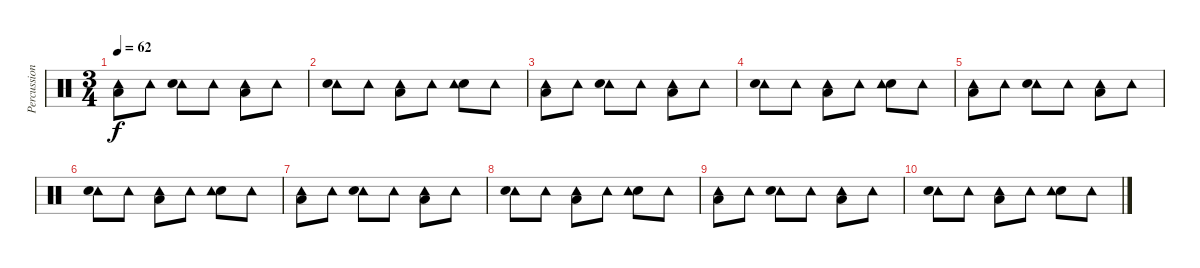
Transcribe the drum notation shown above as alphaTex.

\track ("Percussions" "Percussion") {instrument percussion}
\staff {score}
\articulation defaults
\ts (3 4)
\tempo 62
\clef neutral
\ks c
("Tambourine (hit)" "Low Tom (hit)").8{dy f} "Tambourine (hit)".8 ("Tambourine (hit)" "Snare (hit) 2").8 "Tambourine (hit)".8 ("Tambourine (hit)" "Low Tom (hit)").8 "Tambourine (hit)".8 |
("Tambourine (hit)" "Snare (hit) 2").8 "Tambourine (hit)".8 ("Tambourine (hit)" "Low Tom (hit)").8 "Tambourine (hit)".8 ("Snare (hit) 2" "Tambourine (hit)").8 "Tambourine (hit)".8 |
("Tambourine (hit)" "Low Tom (hit)").8 "Tambourine (hit)".8 ("Tambourine (hit)" "Snare (hit) 2").8 "Tambourine (hit)".8 ("Tambourine (hit)" "Low Tom (hit)").8 "Tambourine (hit)".8 |
("Tambourine (hit)" "Snare (hit) 2").8 "Tambourine (hit)".8 ("Tambourine (hit)" "Low Tom (hit)").8 "Tambourine (hit)".8 ("Snare (hit) 2" "Tambourine (hit)").8 "Tambourine (hit)".8 |
("Tambourine (hit)" "Low Tom (hit)").8 "Tambourine (hit)".8 ("Tambourine (hit)" "Snare (hit) 2").8 "Tambourine (hit)".8 ("Tambourine (hit)" "Low Tom (hit)").8 "Tambourine (hit)".8 |
("Tambourine (hit)" "Snare (hit) 2").8 "Tambourine (hit)".8 ("Tambourine (hit)" "Low Tom (hit)").8 "Tambourine (hit)".8 ("Snare (hit) 2" "Tambourine (hit)").8 "Tambourine (hit)".8 |
("Tambourine (hit)" "Low Tom (hit)").8 "Tambourine (hit)".8 ("Tambourine (hit)" "Snare (hit) 2").8 "Tambourine (hit)".8 ("Tambourine (hit)" "Low Tom (hit)").8 "Tambourine (hit)".8 |
("Tambourine (hit)" "Snare (hit) 2").8 "Tambourine (hit)".8 ("Tambourine (hit)" "Low Tom (hit)").8 "Tambourine (hit)".8 ("Snare (hit) 2" "Tambourine (hit)").8 "Tambourine (hit)".8 |
("Tambourine (hit)" "Low Tom (hit)").8 "Tambourine (hit)".8 ("Tambourine (hit)" "Snare (hit) 2").8 "Tambourine (hit)".8 ("Tambourine (hit)" "Low Tom (hit)").8 "Tambourine (hit)".8 |
("Tambourine (hit)" "Snare (hit) 2").8 "Tambourine (hit)".8 ("Tambourine (hit)" "Low Tom (hit)").8 "Tambourine (hit)".8 ("Snare (hit) 2" "Tambourine (hit)").8 "Tambourine (hit)".8
